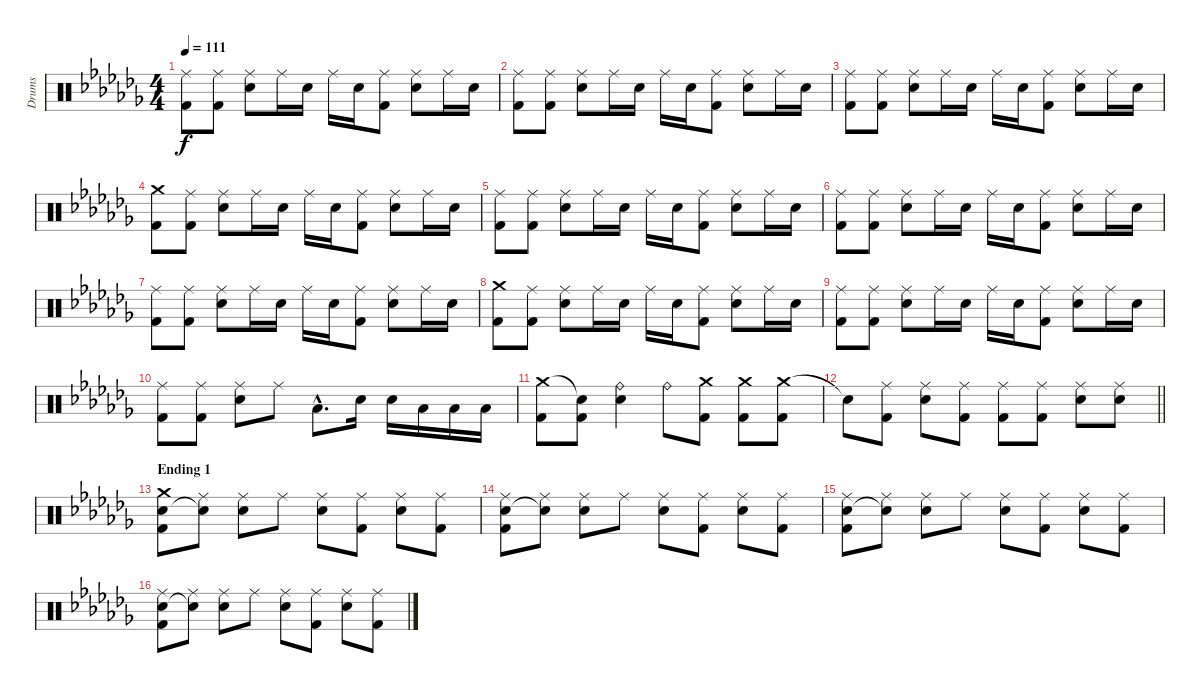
\track ("Drums" "Drums") {instrument percussion}
\staff {score}
\articulation defaults
\ts (4 4)
\tempo 111
\clef neutral
\ks abminor
("Ride (middle)" "Kick (hit) 2").8{dy f} ("Ride (middle)" "Kick (hit) 2").8 ("Ride (middle)" "Electric Snare (hit)").8 "Ride (middle)".16 "Electric Snare (hit)".16 "Ride (middle)".16 "Electric Snare (hit)".16 ("Ride (middle)" "Kick (hit) 2").8 ("Ride (middle)" "Electric Snare (hit)").8 "Ride (middle)".16 "Electric Snare (hit)".16 |
("Ride (middle)" "Kick (hit) 2").8 ("Ride (middle)" "Kick (hit) 2").8 ("Ride (middle)" "Electric Snare (hit)").8 "Ride (middle)".16 "Electric Snare (hit)".16 "Ride (middle)".16 "Electric Snare (hit)".16 ("Ride (middle)" "Kick (hit) 2").8 ("Ride (middle)" "Electric Snare (hit)").8 "Ride (middle)".16 "Electric Snare (hit)".16 |
("Ride (middle)" "Kick (hit) 2").8 ("Ride (middle)" "Kick (hit) 2").8 ("Ride (middle)" "Electric Snare (hit)").8 "Ride (middle)".16 "Electric Snare (hit)".16 "Ride (middle)".16 "Electric Snare (hit)".16 ("Ride (middle)" "Kick (hit) 2").8 ("Ride (middle)" "Electric Snare (hit)").8 "Ride (middle)".16 "Electric Snare (hit)".16 |
("Crash medium (hit)" "Kick (hit) 2").8 ("Ride (middle)" "Kick (hit) 2").8 ("Ride (middle)" "Electric Snare (hit)").8 "Ride (middle)".16 "Electric Snare (hit)".16 "Ride (middle)".16 "Electric Snare (hit)".16 ("Ride (middle)" "Kick (hit) 2").8 ("Ride (middle)" "Electric Snare (hit)").8 "Ride (middle)".16 "Electric Snare (hit)".16 |
("Ride (middle)" "Kick (hit) 2").8 ("Ride (middle)" "Kick (hit) 2").8 ("Ride (middle)" "Electric Snare (hit)").8 "Ride (middle)".16 "Electric Snare (hit)".16 "Ride (middle)".16 "Electric Snare (hit)".16 ("Ride (middle)" "Kick (hit) 2").8 ("Ride (middle)" "Electric Snare (hit)").8 "Ride (middle)".16 "Electric Snare (hit)".16 |
("Ride (middle)" "Kick (hit) 2").8 ("Ride (middle)" "Kick (hit) 2").8 ("Ride (middle)" "Electric Snare (hit)").8 "Ride (middle)".16 "Electric Snare (hit)".16 "Ride (middle)".16 "Electric Snare (hit)".16 ("Ride (middle)" "Kick (hit) 2").8 ("Ride (middle)" "Electric Snare (hit)").8 "Ride (middle)".16 "Electric Snare (hit)".16 |
("Ride (middle)" "Kick (hit) 2").8 ("Ride (middle)" "Kick (hit) 2").8 ("Ride (middle)" "Electric Snare (hit)").8 "Ride (middle)".16 "Electric Snare (hit)".16 "Ride (middle)".16 "Electric Snare (hit)".16 ("Ride (middle)" "Kick (hit) 2").8 ("Ride (middle)" "Electric Snare (hit)").8 "Ride (middle)".16 "Electric Snare (hit)".16 |
("Crash medium (hit)" "Kick (hit) 2").8 ("Ride (middle)" "Kick (hit) 2").8 ("Ride (middle)" "Electric Snare (hit)").8 "Ride (middle)".16 "Electric Snare (hit)".16 "Ride (middle)".16 "Electric Snare (hit)".16 ("Ride (middle)" "Kick (hit) 2").8 ("Ride (middle)" "Electric Snare (hit)").8 "Ride (middle)".16 "Electric Snare (hit)".16 |
("Ride (middle)" "Kick (hit) 2").8 ("Ride (middle)" "Kick (hit) 2").8 ("Ride (middle)" "Electric Snare (hit)").8 "Ride (middle)".16 "Electric Snare (hit)".16 "Ride (middle)".16 "Electric Snare (hit)".16 ("Ride (middle)" "Kick (hit) 2").8 ("Ride (middle)" "Electric Snare (hit)").8 "Ride (middle)".16 "Electric Snare (hit)".16 |
("Ride (middle)" "Kick (hit) 2").8 ("Ride (middle)" "Kick (hit) 2").8 ("Ride (middle)" "Electric Snare (hit)").8 "Ride (middle)".8 "Low Floor Tom (hit)"{hac}.8{d} "Electric Snare (hit)".16 "Electric Snare (hit)".16 "Low Tom (hit)".16 "Low Floor Tom (hit)".16 "Low Floor Tom (hit)".16 |
("Crash medium (hit)" "Kick (hit) 2").8 ("Snare (hit)"{t} "Kick (hit) 2").8 ("Ride (bell)" "Electric Snare (hit)").4 "Ride (bell)".8 ("Crash medium (hit)" "Kick (hit) 2").8 ("Crash medium (hit)" "Kick (hit) 2").8 ("Crash medium (hit)" "Kick (hit) 2").8 |
\barLineRight lightlight "Snare (hit)"{t}.8
("Ride (middle)" "Kick (hit) 2").8 ("Ride (middle)" "Electric Snare (hit)").8 ("Ride (middle)" "Kick (hit) 2").8 ("Ride (middle)" "Kick (hit) 2").8 ("Ride (middle)" "Kick (hit) 2").8 ("Ride (middle)" "Electric Snare (hit)").8 ("Ride (middle)" "Electric Snare (hit)").8 |
\section ("" "Ending 1")
("Crash medium (hit)" "Electric Snare (hit)" "Kick (hit) 2").8 ("Ride (middle)" "Snare (hit)"{t}).8 ("Ride (middle)" "Electric Snare (hit)").8 "Ride (middle)".8 ("Ride (middle)" "Electric Snare (hit)").8 ("Ride (middle)" "Kick (hit) 2").8 ("Ride (middle)" "Electric Snare (hit)").8 ("Ride (middle)" "Kick (hit) 2").8 |
("Ride (middle)" "Electric Snare (hit)" "Kick (hit) 2").8 ("Ride (middle)" "Snare (hit)"{t}).8 ("Ride (middle)" "Electric Snare (hit)").8 "Ride (middle)".8 ("Ride (middle)" "Electric Snare (hit)").8 ("Ride (middle)" "Kick (hit) 2").8 ("Ride (middle)" "Electric Snare (hit)").8 ("Ride (middle)" "Kick (hit) 2").8 |
("Ride (middle)" "Electric Snare (hit)" "Kick (hit) 2").8 ("Ride (middle)" "Snare (hit)"{t}).8 ("Ride (middle)" "Electric Snare (hit)").8 "Ride (middle)".8 ("Ride (middle)" "Electric Snare (hit)").8 ("Ride (middle)" "Kick (hit) 2").8 ("Ride (middle)" "Electric Snare (hit)").8 ("Ride (middle)" "Kick (hit) 2").8 |
("Ride (middle)" "Electric Snare (hit)" "Kick (hit) 2").8 ("Ride (middle)" "Snare (hit)"{t}).8 ("Ride (middle)" "Electric Snare (hit)").8 "Ride (middle)".8 ("Ride (middle)" "Electric Snare (hit)").8 ("Ride (middle)" "Kick (hit) 2").8 ("Ride (middle)" "Electric Snare (hit)").8 ("Ride (middle)" "Kick (hit) 2").8
